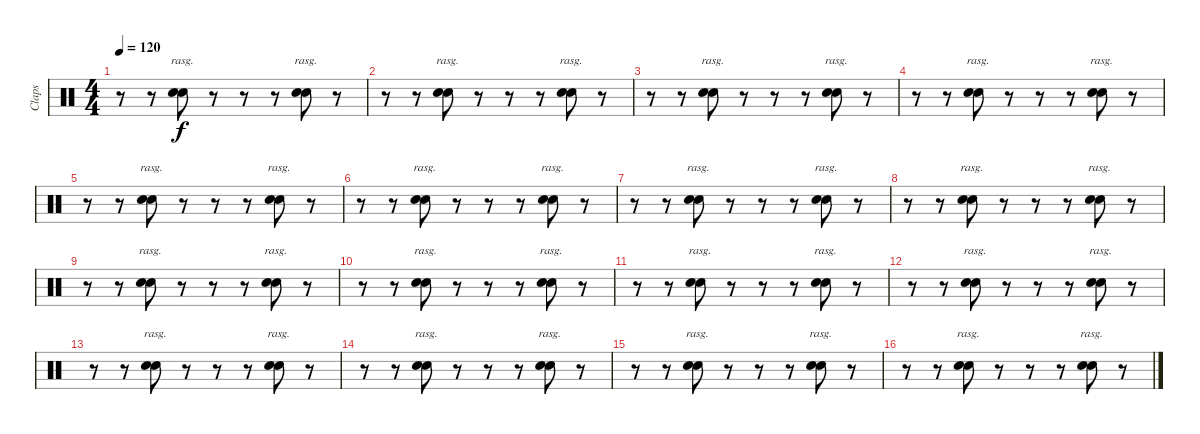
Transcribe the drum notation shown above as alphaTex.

\track ("Claps" "Claps") {instrument percussion}
\staff {score}
\articulation defaults
\ts (4 4)
\tempo 120
\clef neutral
\ks c
r.8{dy f} r.8 ("Hand Clap (hit)" "Hand Clap (hit)").8{bd 60 rasg ii} r.8 r.8 r.8 ("Hand Clap (hit)" "Hand Clap (hit)").8{bd 60 rasg ii} r.8 |
r.8 r.8 ("Hand Clap (hit)" "Hand Clap (hit)").8{bd 60 rasg ii} r.8 r.8 r.8 ("Hand Clap (hit)" "Hand Clap (hit)").8{bd 60 rasg ii} r.8 |
r.8 r.8 ("Hand Clap (hit)" "Hand Clap (hit)").8{bd 60 rasg ii} r.8 r.8 r.8 ("Hand Clap (hit)" "Hand Clap (hit)").8{bd 60 rasg ii} r.8 |
r.8 r.8 ("Hand Clap (hit)" "Hand Clap (hit)").8{bd 60 rasg ii} r.8 r.8 r.8 ("Hand Clap (hit)" "Hand Clap (hit)").8{bd 60 rasg ii} r.8 |
r.8 r.8 ("Hand Clap (hit)" "Hand Clap (hit)").8{bd 60 rasg ii} r.8 r.8 r.8 ("Hand Clap (hit)" "Hand Clap (hit)").8{bd 60 rasg ii} r.8 |
r.8 r.8 ("Hand Clap (hit)" "Hand Clap (hit)").8{bd 60 rasg ii} r.8 r.8 r.8 ("Hand Clap (hit)" "Hand Clap (hit)").8{bd 60 rasg ii} r.8 |
r.8 r.8 ("Hand Clap (hit)" "Hand Clap (hit)").8{bd 60 rasg ii} r.8 r.8 r.8 ("Hand Clap (hit)" "Hand Clap (hit)").8{bd 60 rasg ii} r.8 |
r.8 r.8 ("Hand Clap (hit)" "Hand Clap (hit)").8{bd 60 rasg ii} r.8 r.8 r.8 ("Hand Clap (hit)" "Hand Clap (hit)").8{bd 60 rasg ii} r.8 |
r.8 r.8 ("Hand Clap (hit)" "Hand Clap (hit)").8{bd 60 rasg ii} r.8 r.8 r.8 ("Hand Clap (hit)" "Hand Clap (hit)").8{bd 60 rasg ii} r.8 |
r.8 r.8 ("Hand Clap (hit)" "Hand Clap (hit)").8{bd 60 rasg ii} r.8 r.8 r.8 ("Hand Clap (hit)" "Hand Clap (hit)").8{bd 60 rasg ii} r.8 |
r.8 r.8 ("Hand Clap (hit)" "Hand Clap (hit)").8{bd 60 rasg ii} r.8 r.8 r.8 ("Hand Clap (hit)" "Hand Clap (hit)").8{bd 60 rasg ii} r.8 |
r.8 r.8 ("Hand Clap (hit)" "Hand Clap (hit)").8{bd 60 rasg ii} r.8 r.8 r.8 ("Hand Clap (hit)" "Hand Clap (hit)").8{bd 60 rasg ii} r.8 |
r.8 r.8 ("Hand Clap (hit)" "Hand Clap (hit)").8{bd 60 rasg ii} r.8 r.8 r.8 ("Hand Clap (hit)" "Hand Clap (hit)").8{bd 60 rasg ii} r.8 |
r.8 r.8 ("Hand Clap (hit)" "Hand Clap (hit)").8{bd 60 rasg ii} r.8 r.8 r.8 ("Hand Clap (hit)" "Hand Clap (hit)").8{bd 60 rasg ii} r.8 |
r.8 r.8 ("Hand Clap (hit)" "Hand Clap (hit)").8{bd 60 rasg ii} r.8 r.8 r.8 ("Hand Clap (hit)" "Hand Clap (hit)").8{bd 60 rasg ii} r.8 |
r.8 r.8 ("Hand Clap (hit)" "Hand Clap (hit)").8{bd 60 rasg ii} r.8 r.8 r.8 ("Hand Clap (hit)" "Hand Clap (hit)").8{bd 60 rasg ii} r.8
